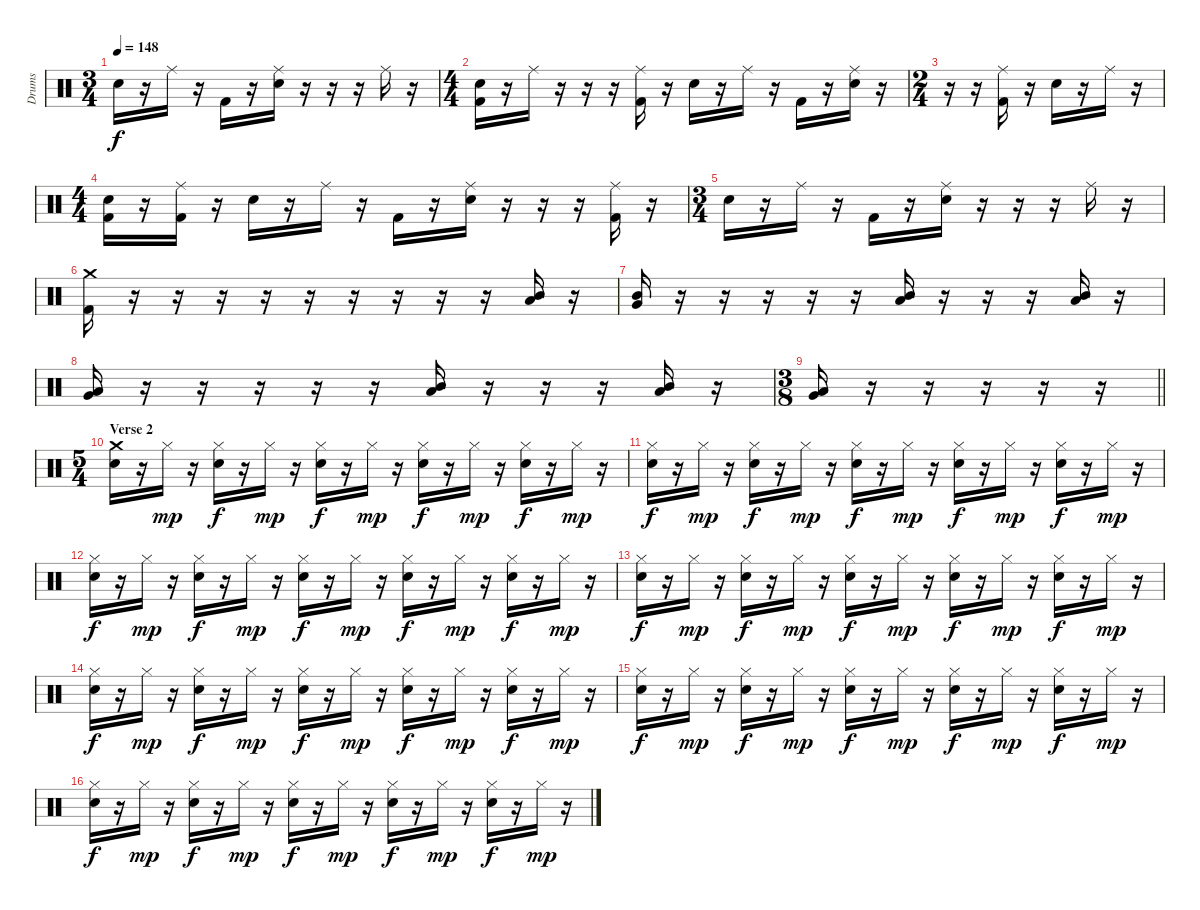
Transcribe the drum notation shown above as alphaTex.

\track ("Drums" "Drums") {instrument percussion}
\staff {score}
\articulation defaults
\ts (3 4)
\tempo 148
\clef neutral
\ks c "Electric Snare (hit)".16{dy f}
r.16 "Ride (middle)".16 r.16 "Kick (hit) 2".16 r.16 ("Ride (middle)" "Electric Snare (hit)").16 r.16 r.16 r.16 "Ride (middle)".16 r.16 |
\ts (4 4)
("Electric Snare (hit)" "Kick (hit) 2").16 r.16 "Ride (middle)".16 r.16 r.16 r.16 ("Ride (middle)" "Kick (hit) 2").16 r.16 "Electric Snare (hit)".16 r.16 "Ride (middle)".16 r.16 "Kick (hit) 2".16 r.16 ("Ride (middle)" "Electric Snare (hit)").16 r.16 |
\ts (2 4)
r.16 r.16 ("Ride (middle)" "Kick (hit) 2").16 r.16 "Electric Snare (hit)".16 r.16 "Ride (middle)".16 r.16 |
\ts (4 4)
("Electric Snare (hit)" "Kick (hit) 2").16 r.16 ("Ride (middle)" "Kick (hit) 2").16 r.16 "Electric Snare (hit)".16 r.16 "Ride (middle)".16 r.16 "Kick (hit) 2".16 r.16 ("Ride (middle)" "Electric Snare (hit)").16 r.16 r.16 r.16 ("Ride (middle)" "Kick (hit) 2").16 r.16 |
\ts (3 4)
"Electric Snare (hit)".16 r.16 "Ride (middle)".16 r.16 "Kick (hit) 2".16 r.16 ("Ride (middle)" "Electric Snare (hit)").16 r.16 r.16 r.16 "Ride (middle)".16 r.16 |
("Crash medium (hit)" "Kick (hit) 2").16 r.16 r.16 r.16 r.16 r.16 r.16 r.16 r.16 r.16 ("Low Tom (hit)" "Mid Tom (hit)").16 r.16 |
("Very Low Tom (hit)" "Mid Tom (hit)").16 r.16 r.16 r.16 r.16 r.16 ("Low Tom (hit)" "Mid Tom (hit)").16 r.16 r.16 r.16 ("Low Tom (hit)" "Mid Tom (hit)").16 r.16 |
("Low Tom (hit)" "Very Low Tom (hit)").16 r.16 r.16 r.16 r.16 r.16 ("Low Tom (hit)" "Mid Tom (hit)").16 r.16 r.16 r.16 ("Low Tom (hit)" "Mid Tom (hit)").16 r.16 |
\ts (3 8)
\barLineRight lightlight
("Very Low Tom (hit)" "Low Tom (hit)").16 r.16 r.16 r.16 r.16 r.16 |
\ts (5 4)
\section ("" "Verse 2")
("Crash medium (hit)" "Electric Snare (hit)").16 r.16 "Hi-Hat (closed)".16{dy mp} r.16 ("Hi-Hat (closed)" "Electric Snare (hit)").16{dy f} r.16 "Hi-Hat (closed)".16{dy mp} r.16 ("Hi-Hat (closed)" "Electric Snare (hit)").16{dy f} r.16 "Hi-Hat (closed)".16{dy mp} r.16 ("Hi-Hat (closed)" "Electric Snare (hit)").16{dy f} r.16 "Hi-Hat (closed)".16{dy mp} r.16 ("Hi-Hat (closed)" "Electric Snare (hit)").16{dy f} r.16 "Hi-Hat (closed)".16{dy mp} r.16 |
("Hi-Hat (closed)" "Electric Snare (hit)").16{dy f} r.16 "Hi-Hat (closed)".16{dy mp} r.16 ("Hi-Hat (closed)" "Electric Snare (hit)").16{dy f} r.16 "Hi-Hat (closed)".16{dy mp} r.16 ("Hi-Hat (closed)" "Electric Snare (hit)").16{dy f} r.16 "Hi-Hat (closed)".16{dy mp} r.16 ("Hi-Hat (closed)" "Electric Snare (hit)").16{dy f} r.16 "Hi-Hat (closed)".16{dy mp} r.16 ("Hi-Hat (closed)" "Electric Snare (hit)").16{dy f} r.16 "Hi-Hat (closed)".16{dy mp} r.16 |
("Hi-Hat (closed)" "Electric Snare (hit)").16{dy f} r.16 "Hi-Hat (closed)".16{dy mp} r.16 ("Hi-Hat (closed)" "Electric Snare (hit)").16{dy f} r.16 "Hi-Hat (closed)".16{dy mp} r.16 ("Hi-Hat (closed)" "Electric Snare (hit)").16{dy f} r.16 "Hi-Hat (closed)".16{dy mp} r.16 ("Hi-Hat (closed)" "Electric Snare (hit)").16{dy f} r.16 "Hi-Hat (closed)".16{dy mp} r.16 ("Hi-Hat (closed)" "Electric Snare (hit)").16{dy f} r.16 "Hi-Hat (closed)".16{dy mp} r.16 |
("Hi-Hat (closed)" "Electric Snare (hit)").16{dy f} r.16 "Hi-Hat (closed)".16{dy mp} r.16 ("Hi-Hat (closed)" "Electric Snare (hit)").16{dy f} r.16 "Hi-Hat (closed)".16{dy mp} r.16 ("Hi-Hat (closed)" "Electric Snare (hit)").16{dy f} r.16 "Hi-Hat (closed)".16{dy mp} r.16 ("Hi-Hat (closed)" "Electric Snare (hit)").16{dy f} r.16 "Hi-Hat (closed)".16{dy mp} r.16 ("Hi-Hat (closed)" "Electric Snare (hit)").16{dy f} r.16 "Hi-Hat (closed)".16{dy mp} r.16 |
("Hi-Hat (closed)" "Electric Snare (hit)").16{dy f} r.16 "Hi-Hat (closed)".16{dy mp} r.16 ("Hi-Hat (closed)" "Electric Snare (hit)").16{dy f} r.16 "Hi-Hat (closed)".16{dy mp} r.16 ("Hi-Hat (closed)" "Electric Snare (hit)").16{dy f} r.16 "Hi-Hat (closed)".16{dy mp} r.16 ("Hi-Hat (closed)" "Electric Snare (hit)").16{dy f} r.16 "Hi-Hat (closed)".16{dy mp} r.16 ("Hi-Hat (closed)" "Electric Snare (hit)").16{dy f} r.16 "Hi-Hat (closed)".16{dy mp} r.16 |
("Hi-Hat (closed)" "Electric Snare (hit)").16{dy f} r.16 "Hi-Hat (closed)".16{dy mp} r.16 ("Hi-Hat (closed)" "Electric Snare (hit)").16{dy f} r.16 "Hi-Hat (closed)".16{dy mp} r.16 ("Hi-Hat (closed)" "Electric Snare (hit)").16{dy f} r.16 "Hi-Hat (closed)".16{dy mp} r.16 ("Hi-Hat (closed)" "Electric Snare (hit)").16{dy f} r.16 "Hi-Hat (closed)".16{dy mp} r.16 ("Hi-Hat (closed)" "Electric Snare (hit)").16{dy f} r.16 "Hi-Hat (closed)".16{dy mp} r.16 |
("Hi-Hat (closed)" "Electric Snare (hit)").16{dy f} r.16 "Hi-Hat (closed)".16{dy mp} r.16 ("Hi-Hat (closed)" "Electric Snare (hit)").16{dy f} r.16 "Hi-Hat (closed)".16{dy mp} r.16 ("Hi-Hat (closed)" "Electric Snare (hit)").16{dy f} r.16 "Hi-Hat (closed)".16{dy mp} r.16 ("Hi-Hat (closed)" "Electric Snare (hit)").16{dy f} r.16 "Hi-Hat (closed)".16{dy mp} r.16 ("Hi-Hat (closed)" "Electric Snare (hit)").16{dy f} r.16 "Hi-Hat (closed)".16{dy mp} r.16
